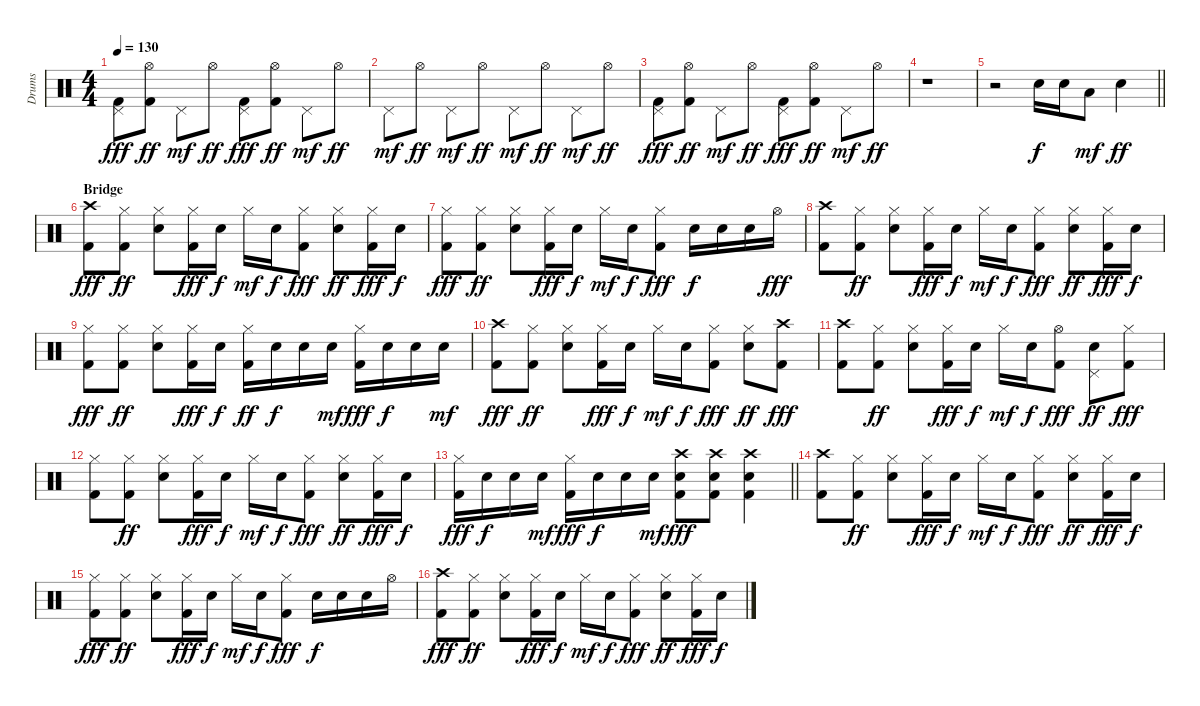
\track ("Drums" "Drums") {instrument percussion}
\staff {score}
\articulation defaults
\ts (4 4)
\tempo 130
\clef neutral
\ks c
("Pedal Hi-Hat (hit)" "Kick (hit) 2").8{dy fff} ("Hi-Hat (open)" "Kick (hit) 2").8{dy ff} "Pedal Hi-Hat (hit)".8{dy mf} "Hi-Hat (open)".8{dy ff} ("Pedal Hi-Hat (hit)" "Kick (hit) 2").8{dy fff} ("Hi-Hat (open)" "Kick (hit) 2").8{dy ff} "Pedal Hi-Hat (hit)".8{dy mf} "Hi-Hat (open)".8{dy ff} |
"Pedal Hi-Hat (hit)".8{dy mf} "Hi-Hat (open)".8{dy ff} "Pedal Hi-Hat (hit)".8{dy mf} "Hi-Hat (open)".8{dy ff} "Pedal Hi-Hat (hit)".8{dy mf} "Hi-Hat (open)".8{dy ff} "Pedal Hi-Hat (hit)".8{dy mf} "Hi-Hat (open)".8{dy ff} |
("Pedal Hi-Hat (hit)" "Kick (hit) 2").8{dy fff} ("Hi-Hat (open)" "Kick (hit) 2").8{dy ff} "Pedal Hi-Hat (hit)".8{dy mf} "Hi-Hat (open)".8{dy ff} ("Pedal Hi-Hat (hit)" "Kick (hit) 2").8{dy fff} ("Hi-Hat (open)" "Kick (hit) 2").8{dy ff} "Pedal Hi-Hat (hit)".8{dy mf} "Hi-Hat (open)".8{dy ff} |
r.1 |
\barLineRight lightlight
r.2 "Snare (hit) 2".16{dy f} "Snare (hit) 2".16 "Low Tom (hit)".8{dy mf} "Snare (hit) 2".4{dy ff} |
\section ("" "Bridge")
("Crash high (hit)" "Kick (hit) 2").8{dy fff} ("Hi-Hat (closed)" "Kick (hit) 2").8{dy ff} ("Hi-Hat (closed)" "Snare (hit) 2").8 ("Hi-Hat (closed)" "Kick (hit) 2").16{dy fff} "Snare (hit) 2".16{dy f} "Hi-Hat (closed)".16{dy mf} "Snare (hit) 2".16{dy f} ("Hi-Hat (closed)" "Kick (hit) 2").8{dy fff} ("Hi-Hat (closed)" "Snare (hit) 2").8{dy ff} ("Hi-Hat (closed)" "Kick (hit) 2").16{dy fff} "Snare (hit) 2".16{dy f} |
("Hi-Hat (closed)" "Kick (hit) 2").8{dy fff} ("Hi-Hat (closed)" "Kick (hit) 2").8{dy ff} ("Hi-Hat (closed)" "Snare (hit) 2").8 ("Hi-Hat (closed)" "Kick (hit) 2").16{dy fff} "Snare (hit) 2".16{dy f} "Hi-Hat (closed)".16{dy mf} "Snare (hit) 2".16{dy f} ("Hi-Hat (closed)" "Kick (hit) 2").8{dy fff} "Snare (hit) 2".16{dy f} "Snare (hit) 2".16 "Snare (hit) 2".16 "Hi-Hat (open)".16{dy fff} |
("Crash high (hit)" "Kick (hit) 2").8 ("Hi-Hat (closed)" "Kick (hit) 2").8{dy ff} ("Hi-Hat (closed)" "Snare (hit) 2").8 ("Hi-Hat (closed)" "Kick (hit) 2").16{dy fff} "Snare (hit) 2".16{dy f} "Hi-Hat (closed)".16{dy mf} "Snare (hit) 2".16{dy f} ("Hi-Hat (closed)" "Kick (hit) 2").8{dy fff} ("Hi-Hat (closed)" "Snare (hit) 2").8{dy ff} ("Hi-Hat (closed)" "Kick (hit) 2").16{dy fff} "Snare (hit) 2".16{dy f} |
("Hi-Hat (closed)" "Kick (hit) 2").8{dy fff} ("Hi-Hat (closed)" "Kick (hit) 2").8{dy ff} ("Hi-Hat (closed)" "Snare (hit) 2").8 ("Hi-Hat (closed)" "Kick (hit) 2").16{dy fff} "Snare (hit) 2".16{dy f} ("Hi-Hat (closed)" "Kick (hit) 2").16{dy ff} "Snare (hit) 2".16{dy f} "Snare (hit) 2".16 "Snare (hit) 2".16{dy mf} ("Hi-Hat (closed)" "Kick (hit) 2").16{dy fff} "Snare (hit) 2".16{dy f} "Snare (hit) 2".16 "Snare (hit) 2".16{dy mf} |
("Crash high (hit)" "Kick (hit) 2").8{dy fff} ("Hi-Hat (closed)" "Kick (hit) 2").8{dy ff} ("Hi-Hat (closed)" "Snare (hit) 2").8 ("Hi-Hat (closed)" "Kick (hit) 2").16{dy fff} "Snare (hit) 2".16{dy f} "Hi-Hat (closed)".16{dy mf} "Snare (hit) 2".16{dy f} ("Hi-Hat (closed)" "Kick (hit) 2").8{dy fff} ("Hi-Hat (closed)" "Snare (hit) 2").8{dy ff} ("Crash high (hit)" "Kick (hit) 2").8{dy fff} |
("Crash high (hit)" "Kick (hit) 2").8 ("Hi-Hat (closed)" "Kick (hit) 2").8{dy ff} ("Hi-Hat (closed)" "Snare (hit) 2").8 ("Hi-Hat (closed)" "Kick (hit) 2").16{dy fff} "Snare (hit) 2".16{dy f} "Hi-Hat (closed)".16{dy mf} "Snare (hit) 2".16{dy f} ("Hi-Hat (open)" "Kick (hit) 2").8{dy fff} ("Pedal Hi-Hat (hit)" "Snare (hit) 2").8{dy ff} ("Hi-Hat (closed)" "Kick (hit) 2").8{dy fff} |
("Hi-Hat (closed)" "Kick (hit) 2").8 ("Hi-Hat (closed)" "Kick (hit) 2").8{dy ff} ("Hi-Hat (closed)" "Snare (hit) 2").8 ("Hi-Hat (closed)" "Kick (hit) 2").16{dy fff} "Snare (hit) 2".16{dy f} "Hi-Hat (closed)".16{dy mf} "Snare (hit) 2".16{dy f} ("Hi-Hat (closed)" "Kick (hit) 2").8{dy fff} ("Hi-Hat (closed)" "Snare (hit) 2").8{dy ff} ("Hi-Hat (closed)" "Kick (hit) 2").16{dy fff} "Snare (hit) 2".16{dy f} |
\barLineRight lightlight
("Hi-Hat (closed)" "Kick (hit) 2").16{dy fff} "Snare (hit) 2".16{dy f} "Snare (hit) 2".16 "Snare (hit) 2".16{dy mf} ("Hi-Hat (closed)" "Kick (hit) 2").16{dy fff} "Snare (hit) 2".16{dy f} "Snare (hit) 2".16 "Snare (hit) 2".16{dy mf} ("Crash high (hit)" "Snare (hit) 2" "Kick (hit) 2").8{dy fff} ("Crash high (hit)" "Snare (hit) 2" "Kick (hit) 2").8 ("Crash high (hit)" "Snare (hit) 2" "Kick (hit) 2").4 |
("Crash high (hit)" "Kick (hit) 2").8 ("Hi-Hat (closed)" "Kick (hit) 2").8{dy ff} ("Hi-Hat (closed)" "Snare (hit) 2").8 ("Hi-Hat (closed)" "Kick (hit) 2").16{dy fff} "Snare (hit) 2".16{dy f} "Hi-Hat (closed)".16{dy mf} "Snare (hit) 2".16{dy f} ("Hi-Hat (closed)" "Kick (hit) 2").8{dy fff} ("Hi-Hat (closed)" "Snare (hit) 2").8{dy ff} ("Hi-Hat (closed)" "Kick (hit) 2").16{dy fff} "Snare (hit) 2".16{dy f} |
("Hi-Hat (closed)" "Kick (hit) 2").8{dy fff} ("Hi-Hat (closed)" "Kick (hit) 2").8{dy ff} ("Hi-Hat (closed)" "Snare (hit) 2").8 ("Hi-Hat (closed)" "Kick (hit) 2").16{dy fff} "Snare (hit) 2".16{dy f} "Hi-Hat (closed)".16{dy mf} "Snare (hit) 2".16{dy f} ("Hi-Hat (closed)" "Kick (hit) 2").8{dy fff} "Snare (hit) 2".16{dy f} "Snare (hit) 2".16 "Snare (hit) 2".16 "Hi-Hat (open)".16 |
("Crash high (hit)" "Kick (hit) 2").8{dy fff} ("Hi-Hat (closed)" "Kick (hit) 2").8{dy ff} ("Hi-Hat (closed)" "Snare (hit) 2").8 ("Hi-Hat (closed)" "Kick (hit) 2").16{dy fff} "Snare (hit) 2".16{dy f} "Hi-Hat (closed)".16{dy mf} "Snare (hit) 2".16{dy f} ("Hi-Hat (closed)" "Kick (hit) 2").8{dy fff} ("Hi-Hat (closed)" "Snare (hit) 2").8{dy ff} ("Hi-Hat (closed)" "Kick (hit) 2").16{dy fff} "Snare (hit) 2".16{dy f}
